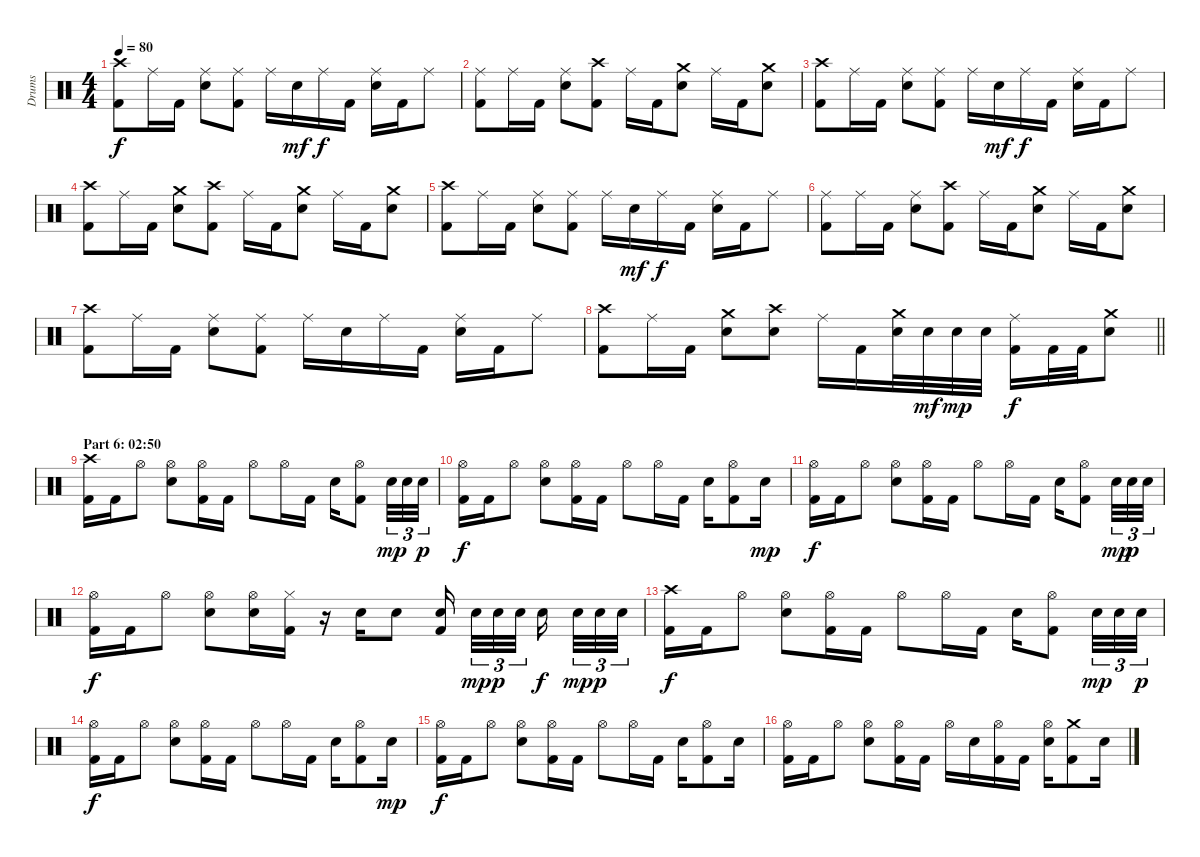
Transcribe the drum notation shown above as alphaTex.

\track ("Drums" "Drums") {instrument percussion}
\staff {score}
\articulation defaults
\ts (4 4)
\tempo 80
\clef neutral
\ks c
("Crash high (hit)" "Kick (hit) 2").8{dy f} "Ride (middle)".16 "Kick (hit) 2".16 ("Ride (middle)" "Electric Snare (hit)").8 ("Ride (middle)" "Kick (hit) 2").8 "Ride (middle)".16 "Electric Snare (hit)".16{dy mf} "Ride (middle)".16{dy f} "Kick (hit) 2".16 ("Ride (middle)" "Electric Snare (hit)").16 "Kick (hit) 2".16 "Ride (middle)".8 |
("Ride (middle)" "Kick (hit) 2").8 "Ride (middle)".16 "Kick (hit) 2".16 ("Ride (middle)" "Electric Snare (hit)").8 ("Crash high (hit)" "Kick (hit) 2").8 "Ride (middle)".16 "Kick (hit) 2".16 ("Crash medium (hit)" "Electric Snare (hit)").8 "Ride (middle)".16 "Kick (hit) 2".16 ("Crash medium (hit)" "Electric Snare (hit)").8 |
("Crash high (hit)" "Kick (hit) 2").8 "Ride (middle)".16 "Kick (hit) 2".16 ("Ride (middle)" "Electric Snare (hit)").8 ("Ride (middle)" "Kick (hit) 2").8 "Ride (middle)".16 "Electric Snare (hit)".16{dy mf} "Ride (middle)".16{dy f} "Kick (hit) 2".16 ("Ride (middle)" "Electric Snare (hit)").16 "Kick (hit) 2".16 "Ride (middle)".8 |
("Crash high (hit)" "Kick (hit) 2").8 "Ride (middle)".16 "Kick (hit) 2".16 ("Crash medium (hit)" "Electric Snare (hit)").8 ("Crash high (hit)" "Kick (hit) 2").8 "Ride (middle)".16 "Kick (hit) 2".16 ("Crash medium (hit)" "Electric Snare (hit)").8 "Ride (middle)".16 "Kick (hit) 2".16 ("Crash medium (hit)" "Electric Snare (hit)").8 |
("Crash high (hit)" "Kick (hit) 2").8 "Ride (middle)".16 "Kick (hit) 2".16 ("Ride (middle)" "Electric Snare (hit)").8 ("Ride (middle)" "Kick (hit) 2").8 "Ride (middle)".16 "Electric Snare (hit)".16{dy mf} "Ride (middle)".16{dy f} "Kick (hit) 2".16 ("Ride (middle)" "Electric Snare (hit)").16 "Kick (hit) 2".16 "Ride (middle)".8 |
("Ride (middle)" "Kick (hit) 2").8 "Ride (middle)".16 "Kick (hit) 2".16 ("Ride (middle)" "Electric Snare (hit)").8 ("Crash high (hit)" "Kick (hit) 2").8 "Ride (middle)".16 "Kick (hit) 2".16 ("Crash medium (hit)" "Electric Snare (hit)").8 "Ride (middle)".16 "Kick (hit) 2".16 ("Crash medium (hit)" "Electric Snare (hit)").8 |
("Crash high (hit)" "Kick (hit) 2").8 "Ride (middle)".16 "Kick (hit) 2".16 ("Ride (middle)" "Electric Snare (hit)").8 ("Ride (middle)" "Kick (hit) 2").8 "Ride (middle)".16 "Electric Snare (hit)".16 "Ride (middle)".16 "Kick (hit) 2".16 ("Ride (middle)" "Electric Snare (hit)").16 "Kick (hit) 2".16 "Ride (middle)".8 |
\barLineRight lightlight
("Crash high (hit)" "Kick (hit) 2").8 "Ride (middle)".16 "Kick (hit) 2".16 ("Crash medium (hit)" "Electric Snare (hit)").8 ("Crash high (hit)" "Electric Snare (hit)").8 "Ride (middle)".16 "Kick (hit) 2".16 ("Crash medium (hit)" "Electric Snare (hit)").32 "Electric Snare (hit)".32{dy mf} "Electric Snare (hit)".32{dy mp} "Electric Snare (hit)".32 ("Ride (middle)" "Kick (hit) 2").16{dy f} "Kick (hit) 2".32 "Kick (hit) 2".32 ("Crash medium (hit)" "Electric Snare (hit)").8 |
\section ("" "Part 6: 02:50")
("Crash high (hit)" "Kick (hit) 2").16 "Kick (hit) 2".16 "Hi-Hat (open)".8 ("Hi-Hat (open)" "Electric Snare (hit)").8 ("Hi-Hat (open)" "Kick (hit) 2").16 "Kick (hit) 2".16 "Hi-Hat (open)".8 "Hi-Hat (open)".16 "Kick (hit) 2".16 "Electric Snare (hit)".16 ("Hi-Hat (open)" "Kick (hit) 2").8 "Electric Snare (hit)".32{tu (3 2) dy mp} "Electric Snare (hit)".32{tu (3 2)} "Electric Snare (hit)".32{tu (3 2) dy p} |
("Hi-Hat (open)" "Kick (hit) 2").16{dy f} "Kick (hit) 2".16 "Hi-Hat (open)".8 ("Hi-Hat (open)" "Electric Snare (hit)").8 ("Hi-Hat (open)" "Kick (hit) 2").16 "Kick (hit) 2".16 "Hi-Hat (open)".8 "Hi-Hat (open)".16 "Kick (hit) 2".16 "Electric Snare (hit)".16 ("Hi-Hat (open)" "Kick (hit) 2").8 "Electric Snare (hit)".16{dy mp} |
("Hi-Hat (open)" "Kick (hit) 2").16{dy f} "Kick (hit) 2".16 "Hi-Hat (open)".8 ("Hi-Hat (open)" "Electric Snare (hit)").8 ("Hi-Hat (open)" "Kick (hit) 2").16 "Kick (hit) 2".16 "Hi-Hat (open)".8 "Hi-Hat (open)".16 "Kick (hit) 2".16 "Electric Snare (hit)".16 ("Hi-Hat (open)" "Kick (hit) 2").8 "Electric Snare (hit)".32{tu (3 2) dy mp} "Electric Snare (hit)".32{tu (3 2) dy p} "Electric Snare (hit)".32{tu (3 2)} |
("Hi-Hat (open)" "Kick (hit) 2").16{dy f} "Kick (hit) 2".16 "Hi-Hat (open)".8 ("Hi-Hat (open)" "Electric Snare (hit)").8 ("Hi-Hat (open)" "Electric Snare (hit)").16 ("Hi-Hat (closed)" "Kick (hit) 2").16 r.16 "Electric Snare (hit)".16 "Electric Snare (hit)".8 ("Electric Snare (hit)" "Kick (hit) 2").16{beam splitsecondary} "Electric Snare (hit)".32{tu (3 2) dy mp} "Electric Snare (hit)".32{tu (3 2) dy p} "Electric Snare (hit)".32{tu (3 2) beam splitsecondary} "Electric Snare (hit)".16{dy f beam splitsecondary} "Electric Snare (hit)".32{tu (3 2) dy mp} "Electric Snare (hit)".32{tu (3 2) dy p} "Electric Snare (hit)".32{tu (3 2)} |
("Crash high (hit)" "Kick (hit) 2").16{dy f} "Kick (hit) 2".16 "Hi-Hat (open)".8 ("Hi-Hat (open)" "Electric Snare (hit)").8 ("Hi-Hat (open)" "Kick (hit) 2").16 "Kick (hit) 2".16 "Hi-Hat (open)".8 "Hi-Hat (open)".16 "Kick (hit) 2".16 "Electric Snare (hit)".16 ("Hi-Hat (open)" "Kick (hit) 2").8 "Electric Snare (hit)".32{tu (3 2) dy mp} "Electric Snare (hit)".32{tu (3 2)} "Electric Snare (hit)".32{tu (3 2) dy p} |
("Hi-Hat (open)" "Kick (hit) 2").16{dy f} "Kick (hit) 2".16 "Hi-Hat (open)".8 ("Hi-Hat (open)" "Electric Snare (hit)").8 ("Hi-Hat (open)" "Kick (hit) 2").16 "Kick (hit) 2".16 "Hi-Hat (open)".8 "Hi-Hat (open)".16 "Kick (hit) 2".16 "Electric Snare (hit)".16 ("Hi-Hat (open)" "Kick (hit) 2").8 "Electric Snare (hit)".16{dy mp} |
("Hi-Hat (open)" "Kick (hit) 2").16{dy f} "Kick (hit) 2".16 "Hi-Hat (open)".8 ("Hi-Hat (open)" "Electric Snare (hit)").8 ("Hi-Hat (open)" "Kick (hit) 2").16 "Kick (hit) 2".16 "Hi-Hat (open)".8 "Hi-Hat (open)".16 "Kick (hit) 2".16 "Electric Snare (hit)".16 ("Hi-Hat (open)" "Kick (hit) 2").8 "Electric Snare (hit)".16 |
("Hi-Hat (open)" "Kick (hit) 2").16 "Kick (hit) 2".16 "Hi-Hat (open)".8 ("Hi-Hat (open)" "Electric Snare (hit)").8 ("Hi-Hat (open)" "Kick (hit) 2").16 "Kick (hit) 2".16 "Hi-Hat (open)".16 "Electric Snare (hit)".16 ("Hi-Hat (open)" "Kick (hit) 2").16 "Kick (hit) 2".16 ("Hi-Hat (open)" "Electric Snare (hit)").16 ("Crash medium (hit)" "Kick (hit) 2").8 "Electric Snare (hit)".16
